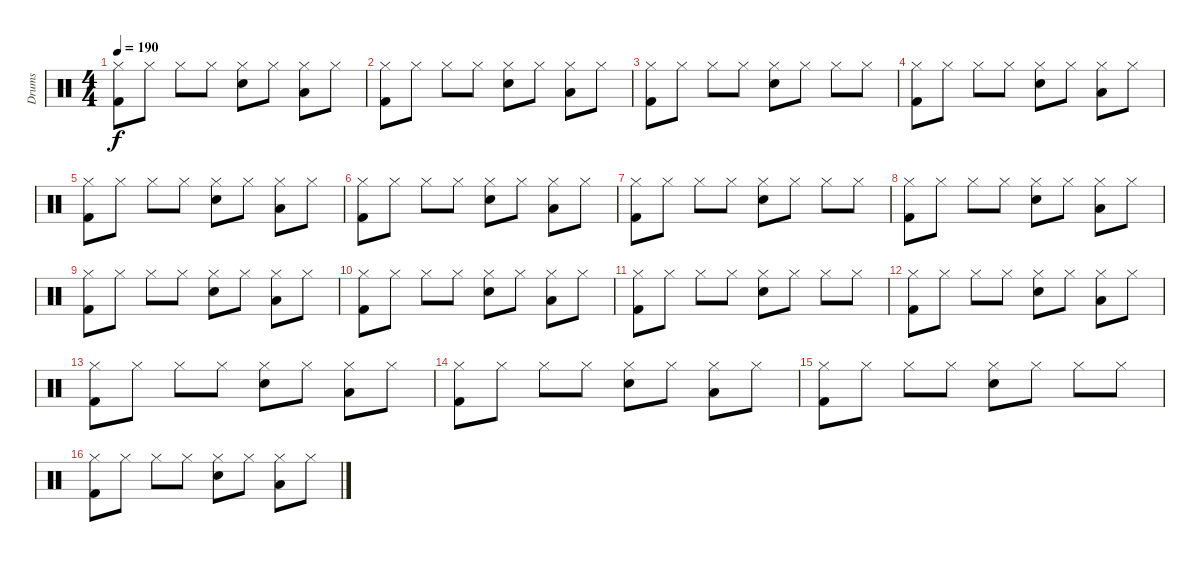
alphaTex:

\track ("Drums" "Drums") {instrument percussion}
\staff {score}
\articulation defaults
\ts (4 4)
\tempo 190
\clef neutral
\ks c
("Kick (hit) 2" "Hi-Hat (closed)").8{dy f} "Hi-Hat (closed)".8 "Hi-Hat (closed)".8 "Hi-Hat (closed)".8 ("Snare (hit) 2" "Hi-Hat (closed)").8 "Hi-Hat (closed)".8 ("Low Tom (hit)" "Hi-Hat (closed)").8 "Hi-Hat (closed)".8 |
("Kick (hit) 2" "Hi-Hat (closed)").8 "Hi-Hat (closed)".8 "Hi-Hat (closed)".8 "Hi-Hat (closed)".8 ("Snare (hit) 2" "Hi-Hat (closed)").8 "Hi-Hat (closed)".8 ("Low Tom (hit)" "Hi-Hat (closed)").8 "Hi-Hat (closed)".8 |
("Kick (hit) 2" "Hi-Hat (closed)").8 "Hi-Hat (closed)".8 "Hi-Hat (closed)".8 "Hi-Hat (closed)".8 ("Snare (hit) 2" "Hi-Hat (closed)").8 "Hi-Hat (closed)".8 "Hi-Hat (closed)".8 "Hi-Hat (closed)".8 |
("Kick (hit) 2" "Hi-Hat (closed)").8 "Hi-Hat (closed)".8 "Hi-Hat (closed)".8 "Hi-Hat (closed)".8 ("Snare (hit) 2" "Hi-Hat (closed)").8 "Hi-Hat (closed)".8 ("Low Tom (hit)" "Hi-Hat (closed)").8 "Hi-Hat (closed)".8 |
("Kick (hit) 2" "Hi-Hat (closed)").8 "Hi-Hat (closed)".8 "Hi-Hat (closed)".8 "Hi-Hat (closed)".8 ("Snare (hit) 2" "Hi-Hat (closed)").8 "Hi-Hat (closed)".8 ("Low Tom (hit)" "Hi-Hat (closed)").8 "Hi-Hat (closed)".8 |
("Kick (hit) 2" "Hi-Hat (closed)").8 "Hi-Hat (closed)".8 "Hi-Hat (closed)".8 "Hi-Hat (closed)".8 ("Snare (hit) 2" "Hi-Hat (closed)").8 "Hi-Hat (closed)".8 ("Low Tom (hit)" "Hi-Hat (closed)").8 "Hi-Hat (closed)".8 |
("Kick (hit) 2" "Hi-Hat (closed)").8 "Hi-Hat (closed)".8 "Hi-Hat (closed)".8 "Hi-Hat (closed)".8 ("Snare (hit) 2" "Hi-Hat (closed)").8 "Hi-Hat (closed)".8 "Hi-Hat (closed)".8 "Hi-Hat (closed)".8 |
("Kick (hit) 2" "Hi-Hat (closed)").8 "Hi-Hat (closed)".8 "Hi-Hat (closed)".8 "Hi-Hat (closed)".8 ("Snare (hit) 2" "Hi-Hat (closed)").8 "Hi-Hat (closed)".8 ("Low Tom (hit)" "Hi-Hat (closed)").8 "Hi-Hat (closed)".8 |
("Kick (hit) 2" "Hi-Hat (closed)").8 "Hi-Hat (closed)".8 "Hi-Hat (closed)".8 "Hi-Hat (closed)".8 ("Snare (hit) 2" "Hi-Hat (closed)").8 "Hi-Hat (closed)".8 ("Low Tom (hit)" "Hi-Hat (closed)").8 "Hi-Hat (closed)".8 |
("Kick (hit) 2" "Hi-Hat (closed)").8 "Hi-Hat (closed)".8 "Hi-Hat (closed)".8 "Hi-Hat (closed)".8 ("Snare (hit) 2" "Hi-Hat (closed)").8 "Hi-Hat (closed)".8 ("Low Tom (hit)" "Hi-Hat (closed)").8 "Hi-Hat (closed)".8 |
("Kick (hit) 2" "Hi-Hat (closed)").8 "Hi-Hat (closed)".8 "Hi-Hat (closed)".8 "Hi-Hat (closed)".8 ("Snare (hit) 2" "Hi-Hat (closed)").8 "Hi-Hat (closed)".8 "Hi-Hat (closed)".8 "Hi-Hat (closed)".8 |
("Kick (hit) 2" "Hi-Hat (closed)").8 "Hi-Hat (closed)".8 "Hi-Hat (closed)".8 "Hi-Hat (closed)".8 ("Snare (hit) 2" "Hi-Hat (closed)").8 "Hi-Hat (closed)".8 ("Low Tom (hit)" "Hi-Hat (closed)").8 "Hi-Hat (closed)".8 |
("Kick (hit) 2" "Hi-Hat (closed)").8 "Hi-Hat (closed)".8 "Hi-Hat (closed)".8 "Hi-Hat (closed)".8 ("Snare (hit) 2" "Hi-Hat (closed)").8 "Hi-Hat (closed)".8 ("Low Tom (hit)" "Hi-Hat (closed)").8 "Hi-Hat (closed)".8 |
("Kick (hit) 2" "Hi-Hat (closed)").8 "Hi-Hat (closed)".8 "Hi-Hat (closed)".8 "Hi-Hat (closed)".8 ("Snare (hit) 2" "Hi-Hat (closed)").8 "Hi-Hat (closed)".8 ("Low Tom (hit)" "Hi-Hat (closed)").8 "Hi-Hat (closed)".8 |
("Kick (hit) 2" "Hi-Hat (closed)").8 "Hi-Hat (closed)".8 "Hi-Hat (closed)".8 "Hi-Hat (closed)".8 ("Snare (hit) 2" "Hi-Hat (closed)").8 "Hi-Hat (closed)".8 "Hi-Hat (closed)".8 "Hi-Hat (closed)".8 |
("Kick (hit) 2" "Hi-Hat (closed)").8 "Hi-Hat (closed)".8 "Hi-Hat (closed)".8 "Hi-Hat (closed)".8 ("Snare (hit) 2" "Hi-Hat (closed)").8 "Hi-Hat (closed)".8 ("Low Tom (hit)" "Hi-Hat (closed)").8 "Hi-Hat (closed)".8
